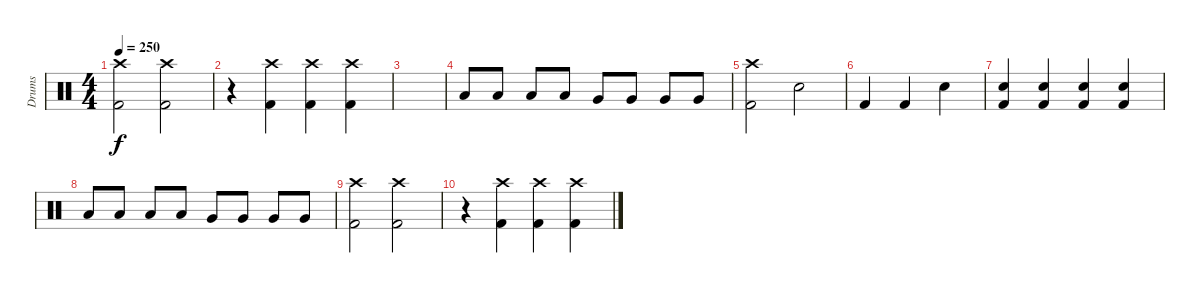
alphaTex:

\track ("Drums" "Drums") {instrument percussion}
\staff {score}
\articulation defaults
\ts (4 4)
\tempo 250
\clef neutral
\ks c
("Kick (hit) 2" "Crash high (hit)").2{dy f} ("Kick (hit) 2" "Crash high (hit)").2 |
r.4 ("Kick (hit) 2" "Crash high (hit)").4 ("Kick (hit) 2" "Crash high (hit)").4 ("Kick (hit) 2" "Crash high (hit)").4 |
|
"Low Tom (hit)".8 "Low Tom (hit)".8 "Low Tom (hit)".8 "Low Tom (hit)".8 "Very Low Tom (hit)".8 "Very Low Tom (hit)".8 "Very Low Tom (hit)".8 "Very Low Tom (hit)".8 |
("Kick (hit) 2" "Crash high (hit)").2 "Electric Snare (hit)".2 |
"Kick (hit) 2".4 "Kick (hit) 2".4 "Electric Snare (hit)".4 |
("Kick (hit) 2" "Electric Snare (hit)").4 ("Kick (hit) 2" "Electric Snare (hit)").4 ("Kick (hit) 2" "Electric Snare (hit)").4 ("Kick (hit) 2" "Electric Snare (hit)").4 |
"Low Tom (hit)".8 "Low Tom (hit)".8 "Low Tom (hit)".8 "Low Tom (hit)".8 "Very Low Tom (hit)".8 "Very Low Tom (hit)".8 "Very Low Tom (hit)".8 "Very Low Tom (hit)".8 |
("Kick (hit) 2" "Crash high (hit)").2 ("Kick (hit) 2" "Crash high (hit)").2 |
r.4 ("Kick (hit) 2" "Crash high (hit)").4 ("Kick (hit) 2" "Crash high (hit)").4 ("Kick (hit) 2" "Crash high (hit)").4
